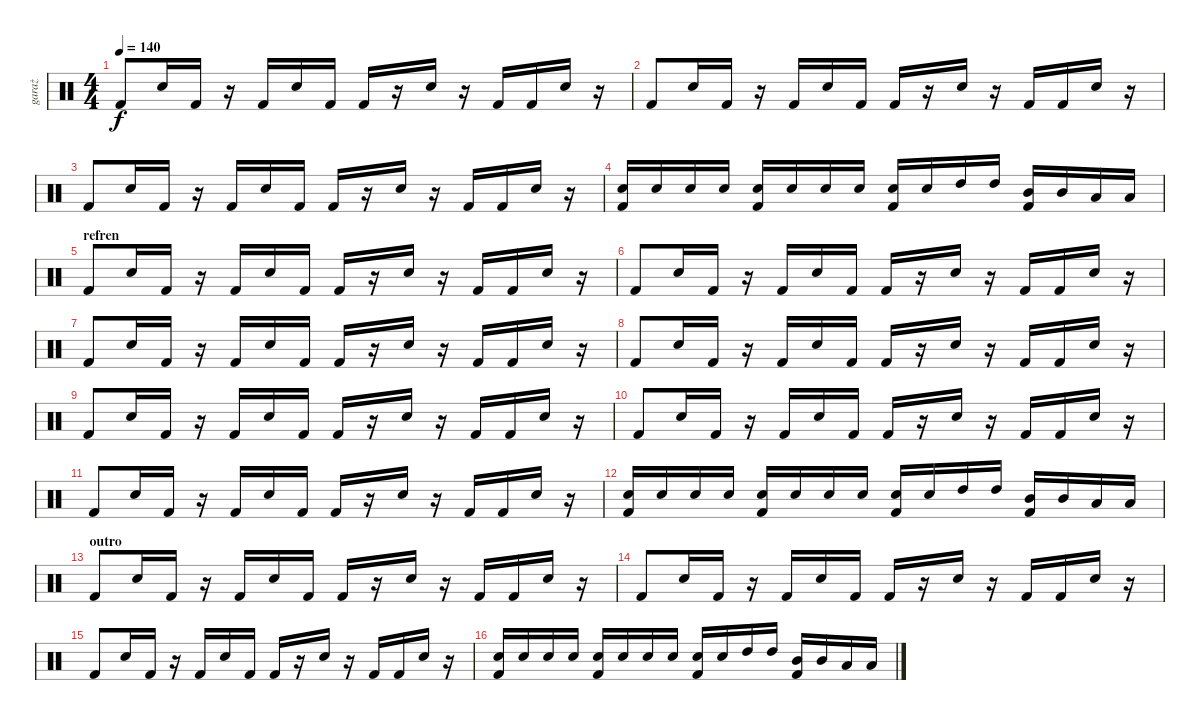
\track ("garaż" "garaż") {instrument percussion}
\staff {score}
\articulation defaults
\ts (4 4)
\tempo 140
\clef neutral
\ks c "Kick (hit) 2".8{dy f} "Snare (hit) 2".16 "Kick (hit) 2".16
r.16 "Kick (hit) 2".16 "Snare (hit) 2".16 "Kick (hit) 2".16 "Kick (hit) 2".16 r.16 "Snare (hit) 2".16 r.16 "Kick (hit) 2".16 "Kick (hit) 2".16 "Snare (hit) 2".16 r.16 |
"Kick (hit) 2".8 "Snare (hit) 2".16 "Kick (hit) 2".16 r.16 "Kick (hit) 2".16 "Snare (hit) 2".16 "Kick (hit) 2".16 "Kick (hit) 2".16 r.16 "Snare (hit) 2".16 r.16 "Kick (hit) 2".16 "Kick (hit) 2".16 "Snare (hit) 2".16 r.16 |
"Kick (hit) 2".8 "Snare (hit) 2".16 "Kick (hit) 2".16 r.16 "Kick (hit) 2".16 "Snare (hit) 2".16 "Kick (hit) 2".16 "Kick (hit) 2".16 r.16 "Snare (hit) 2".16 r.16 "Kick (hit) 2".16 "Kick (hit) 2".16 "Snare (hit) 2".16 r.16 |
("Snare (hit) 2" "Kick (hit) 2").16 "Snare (hit) 2".16 "Snare (hit) 2".16 "Snare (hit) 2".16 ("Snare (hit) 2" "Kick (hit) 2").16 "Snare (hit) 2".16 "Snare (hit) 2".16 "Snare (hit) 2".16 ("Snare (hit) 2" "Kick (hit) 2").16 "Snare (hit) 2".16 "High Tom (hit)".16 "High Tom (hit)".16 ("Mid Tom (hit)" "Kick (hit) 2").16 "Mid Tom (hit)".16 "Low Tom (hit)".16 "Low Tom (hit)".16 |
\section ("" "refren")
"Kick (hit) 2".8 "Snare (hit) 2".16 "Kick (hit) 2".16 r.16 "Kick (hit) 2".16 "Snare (hit) 2".16 "Kick (hit) 2".16 "Kick (hit) 2".16 r.16 "Snare (hit) 2".16 r.16 "Kick (hit) 2".16 "Kick (hit) 2".16 "Snare (hit) 2".16 r.16 |
"Kick (hit) 2".8 "Snare (hit) 2".16 "Kick (hit) 2".16 r.16 "Kick (hit) 2".16 "Snare (hit) 2".16 "Kick (hit) 2".16 "Kick (hit) 2".16 r.16 "Snare (hit) 2".16 r.16 "Kick (hit) 2".16 "Kick (hit) 2".16 "Snare (hit) 2".16 r.16 |
"Kick (hit) 2".8 "Snare (hit) 2".16 "Kick (hit) 2".16 r.16 "Kick (hit) 2".16 "Snare (hit) 2".16 "Kick (hit) 2".16 "Kick (hit) 2".16 r.16 "Snare (hit) 2".16 r.16 "Kick (hit) 2".16 "Kick (hit) 2".16 "Snare (hit) 2".16 r.16 |
"Kick (hit) 2".8 "Snare (hit) 2".16 "Kick (hit) 2".16 r.16 "Kick (hit) 2".16 "Snare (hit) 2".16 "Kick (hit) 2".16 "Kick (hit) 2".16 r.16 "Snare (hit) 2".16 r.16 "Kick (hit) 2".16 "Kick (hit) 2".16 "Snare (hit) 2".16 r.16 |
"Kick (hit) 2".8 "Snare (hit) 2".16 "Kick (hit) 2".16 r.16 "Kick (hit) 2".16 "Snare (hit) 2".16 "Kick (hit) 2".16 "Kick (hit) 2".16 r.16 "Snare (hit) 2".16 r.16 "Kick (hit) 2".16 "Kick (hit) 2".16 "Snare (hit) 2".16 r.16 |
"Kick (hit) 2".8 "Snare (hit) 2".16 "Kick (hit) 2".16 r.16 "Kick (hit) 2".16 "Snare (hit) 2".16 "Kick (hit) 2".16 "Kick (hit) 2".16 r.16 "Snare (hit) 2".16 r.16 "Kick (hit) 2".16 "Kick (hit) 2".16 "Snare (hit) 2".16 r.16 |
"Kick (hit) 2".8 "Snare (hit) 2".16 "Kick (hit) 2".16 r.16 "Kick (hit) 2".16 "Snare (hit) 2".16 "Kick (hit) 2".16 "Kick (hit) 2".16 r.16 "Snare (hit) 2".16 r.16 "Kick (hit) 2".16 "Kick (hit) 2".16 "Snare (hit) 2".16 r.16 |
("Snare (hit) 2" "Kick (hit) 2").16 "Snare (hit) 2".16 "Snare (hit) 2".16 "Snare (hit) 2".16 ("Snare (hit) 2" "Kick (hit) 2").16 "Snare (hit) 2".16 "Snare (hit) 2".16 "Snare (hit) 2".16 ("Snare (hit) 2" "Kick (hit) 2").16 "Snare (hit) 2".16 "High Tom (hit)".16 "High Tom (hit)".16 ("Mid Tom (hit)" "Kick (hit) 2").16 "Mid Tom (hit)".16 "Low Tom (hit)".16 "Low Tom (hit)".16 |
\section ("" "outro")
"Kick (hit) 2".8 "Snare (hit) 2".16 "Kick (hit) 2".16 r.16 "Kick (hit) 2".16 "Snare (hit) 2".16 "Kick (hit) 2".16 "Kick (hit) 2".16 r.16 "Snare (hit) 2".16 r.16 "Kick (hit) 2".16 "Kick (hit) 2".16 "Snare (hit) 2".16 r.16 |
"Kick (hit) 2".8 "Snare (hit) 2".16 "Kick (hit) 2".16 r.16 "Kick (hit) 2".16 "Snare (hit) 2".16 "Kick (hit) 2".16 "Kick (hit) 2".16 r.16 "Snare (hit) 2".16 r.16 "Kick (hit) 2".16 "Kick (hit) 2".16 "Snare (hit) 2".16 r.16 |
"Kick (hit) 2".8 "Snare (hit) 2".16 "Kick (hit) 2".16 r.16 "Kick (hit) 2".16 "Snare (hit) 2".16 "Kick (hit) 2".16 "Kick (hit) 2".16 r.16 "Snare (hit) 2".16 r.16 "Kick (hit) 2".16 "Kick (hit) 2".16 "Snare (hit) 2".16 r.16 |
("Snare (hit) 2" "Kick (hit) 2").16 "Snare (hit) 2".16 "Snare (hit) 2".16 "Snare (hit) 2".16 ("Snare (hit) 2" "Kick (hit) 2").16 "Snare (hit) 2".16 "Snare (hit) 2".16 "Snare (hit) 2".16 ("Snare (hit) 2" "Kick (hit) 2").16 "Snare (hit) 2".16 "High Tom (hit)".16 "High Tom (hit)".16 ("Mid Tom (hit)" "Kick (hit) 2").16 "Mid Tom (hit)".16 "Low Tom (hit)".16 "Low Tom (hit)".16
